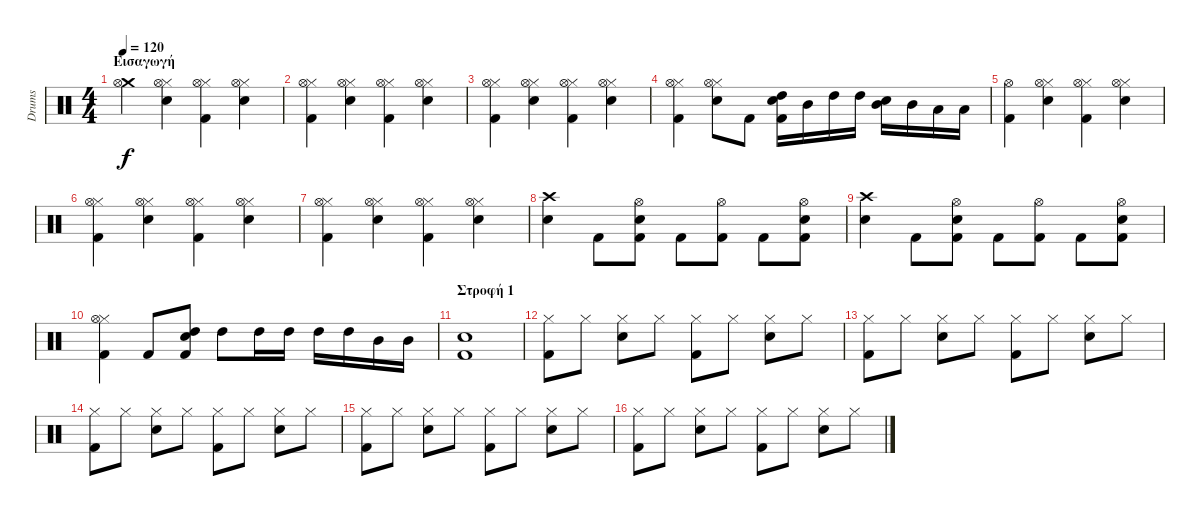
\track ("Drums" "Drums") {instrument percussion}
\staff {score}
\articulation defaults
\ts (4 4)
\section ("" "Εισαγωγή")
\tempo 120
\clef neutral
\ks c
("Crash medium (hit)" "Hi-Hat (open)").4{dy f} ("Electric Snare (hit)" "Hi-Hat (closed)" "Hi-Hat (open)").4 ("Kick (hit) 2" "Hi-Hat (closed)" "Hi-Hat (open)").4 ("Electric Snare (hit)" "Hi-Hat (closed)" "Hi-Hat (open)").4 |
("Kick (hit) 2" "Hi-Hat (closed)" "Hi-Hat (open)").4 ("Electric Snare (hit)" "Hi-Hat (closed)" "Hi-Hat (open)").4 ("Kick (hit) 2" "Hi-Hat (closed)" "Hi-Hat (open)").4 ("Electric Snare (hit)" "Hi-Hat (closed)" "Hi-Hat (open)").4 |
("Kick (hit) 2" "Hi-Hat (closed)" "Hi-Hat (open)").4 ("Electric Snare (hit)" "Hi-Hat (closed)" "Hi-Hat (open)").4 ("Kick (hit) 2" "Hi-Hat (closed)" "Hi-Hat (open)").4 ("Electric Snare (hit)" "Hi-Hat (closed)" "Hi-Hat (open)").4 |
("Kick (hit) 2" "Hi-Hat (closed)" "Hi-Hat (open)").4 ("Electric Snare (hit)" "Hi-Hat (closed)" "Hi-Hat (open)").8 "Kick (hit) 2".8 ("High Tom (hit)" "Electric Snare (hit)" "Kick (hit) 2").16 "Mid Tom (hit)".16 "High Tom (hit)".16 "High Tom (hit)".16 ("Mid Tom (hit)" "Electric Snare (hit)").16 "Mid Tom (hit)".16 "Low Tom (hit)".16 "Low Tom (hit)".16 |
("Kick (hit) 2" "Hi-Hat (open)").4 ("Electric Snare (hit)" "Hi-Hat (closed)" "Hi-Hat (open)").4 ("Kick (hit) 2" "Hi-Hat (closed)" "Hi-Hat (open)").4 ("Electric Snare (hit)" "Hi-Hat (closed)" "Hi-Hat (open)").4 |
("Kick (hit) 2" "Hi-Hat (closed)" "Hi-Hat (open)").4 ("Electric Snare (hit)" "Hi-Hat (closed)" "Hi-Hat (open)").4 ("Kick (hit) 2" "Hi-Hat (closed)" "Hi-Hat (open)").4 ("Electric Snare (hit)" "Hi-Hat (closed)" "Hi-Hat (open)").4 |
("Kick (hit) 2" "Hi-Hat (closed)" "Hi-Hat (open)").4 ("Electric Snare (hit)" "Hi-Hat (closed)" "Hi-Hat (open)").4 ("Kick (hit) 2" "Hi-Hat (closed)" "Hi-Hat (open)").4 ("Electric Snare (hit)" "Hi-Hat (closed)" "Hi-Hat (open)").4 |
("Crash high (hit)" "Electric Snare (hit)").4 "Kick (hit) 2".8 ("Hi-Hat (open)" "Electric Snare (hit)" "Kick (hit) 2").8 "Kick (hit) 2".8 ("Hi-Hat (open)" "Kick (hit) 2").8 "Kick (hit) 2".8 ("Hi-Hat (open)" "Electric Snare (hit)" "Kick (hit) 2").8 |
("Crash high (hit)" "Electric Snare (hit)").4 "Kick (hit) 2".8 ("Hi-Hat (open)" "Electric Snare (hit)" "Kick (hit) 2").8 "Kick (hit) 2".8 ("Hi-Hat (open)" "Kick (hit) 2").8 "Kick (hit) 2".8 ("Hi-Hat (open)" "Electric Snare (hit)" "Kick (hit) 2").8 |
("Kick (hit) 2" "Hi-Hat (closed)" "Hi-Hat (open)").4 "Kick (hit) 2".8 ("High Tom (hit)" "Electric Snare (hit)" "Kick (hit) 2").8 "High Tom (hit)".8 "High Tom (hit)".16 "High Tom (hit)".16 "High Tom (hit)".16 "High Tom (hit)".16 "Mid Tom (hit)".16 "Mid Tom (hit)".16 |
\section ("" "Στροφή 1")
("Electric Snare (hit)" "Kick (hit) 2").1 |
("Hi-Hat (closed)" "Kick (hit) 2").8 "Hi-Hat (closed)".8 ("Hi-Hat (closed)" "Electric Snare (hit)").8 "Hi-Hat (closed)".8 ("Hi-Hat (closed)" "Kick (hit) 2").8 "Hi-Hat (closed)".8 ("Hi-Hat (closed)" "Electric Snare (hit)").8 "Hi-Hat (closed)".8 |
("Hi-Hat (closed)" "Kick (hit) 2").8 "Hi-Hat (closed)".8 ("Hi-Hat (closed)" "Electric Snare (hit)").8 "Hi-Hat (closed)".8 ("Hi-Hat (closed)" "Kick (hit) 2").8 "Hi-Hat (closed)".8 ("Hi-Hat (closed)" "Electric Snare (hit)").8 "Hi-Hat (closed)".8 |
("Hi-Hat (closed)" "Kick (hit) 2").8 "Hi-Hat (closed)".8 ("Hi-Hat (closed)" "Electric Snare (hit)").8 "Hi-Hat (closed)".8 ("Hi-Hat (closed)" "Kick (hit) 2").8 "Hi-Hat (closed)".8 ("Hi-Hat (closed)" "Electric Snare (hit)").8 "Hi-Hat (closed)".8 |
("Hi-Hat (closed)" "Kick (hit) 2").8 "Hi-Hat (closed)".8 ("Hi-Hat (closed)" "Electric Snare (hit)").8 "Hi-Hat (closed)".8 ("Hi-Hat (closed)" "Kick (hit) 2").8 "Hi-Hat (closed)".8 ("Hi-Hat (closed)" "Electric Snare (hit)").8 "Hi-Hat (closed)".8 |
("Hi-Hat (closed)" "Kick (hit) 2").8 "Hi-Hat (closed)".8 ("Hi-Hat (closed)" "Electric Snare (hit)").8 "Hi-Hat (closed)".8 ("Hi-Hat (closed)" "Kick (hit) 2").8 "Hi-Hat (closed)".8 ("Hi-Hat (closed)" "Electric Snare (hit)").8 "Hi-Hat (closed)".8
